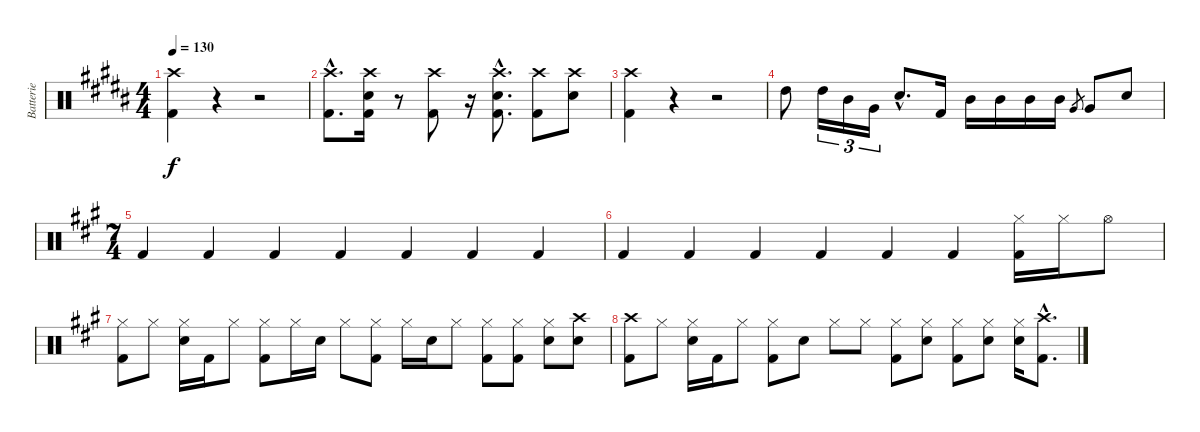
\track ("Batterie" "Batterie") {instrument percussion}
\staff {score}
\articulation defaults
\ts (4 4)
\tempo 130
\clef neutral
\ks b
("Crash high (hit)" "Kick (hit) 2").4{dy f} r.4 r.2 |
("Crash high (hit)"{hac} "Kick (hit) 2"{hac}).8{d} ("Crash high (hit)" "Snare (hit) 2" "Kick (hit) 2").16 r.8 ("Crash high (hit)" "Kick (hit) 2").8 r.16 ("Crash high (hit)"{hac} "Snare (hit) 2"{hac} "Kick (hit) 2"{hac}).8{d} ("Crash high (hit)" "Kick (hit) 2").8 ("Crash high (hit)" "Snare (hit) 2").8 |
("Crash high (hit)" "Kick (hit) 2").4 r.4 r.2 |
"High Tom (hit)".8 "High Tom (hit)".16{tu (3 2)} "Mid Tom (hit)".16{tu (3 2)} "Very Low Tom (hit)".16{tu (3 2)} "Snare (hit) 2"{hac}.8{d} "Kick (hit) 2".16 "Mid Tom (hit)".16 "Mid Tom (hit)".16 "Mid Tom (hit)".16 "Mid Tom (hit)".16 "Very Low Tom (hit)".8{gr} "Very Low Tom (hit)".8 "Snare (hit) 2".8 |
\ts (7 4)
\ks a "Kick (hit) 2".4 "Kick (hit) 2".4 "Kick (hit) 2".4 "Kick (hit) 2".4 "Kick (hit) 2".4 "Kick (hit) 2".4 "Kick (hit) 2".4
|
"Kick (hit) 2".4 "Kick (hit) 2".4 "Kick (hit) 2".4 "Kick (hit) 2".4 "Kick (hit) 2".4 "Kick (hit) 2".4 ("Hi-Hat (closed)" "Kick (hit) 2").16 "Hi-Hat (closed)".16 "Hi-Hat (open)".8 |
("Hi-Hat (closed)" "Kick (hit) 2").8 "Hi-Hat (closed)".8 ("Hi-Hat (closed)" "Snare (hit) 2").16 "Kick (hit) 2".16 "Hi-Hat (closed)".8 ("Hi-Hat (closed)" "Kick (hit) 2").8 "Hi-Hat (closed)".16 "Snare (hit) 2".16 "Hi-Hat (closed)".8 ("Hi-Hat (closed)" "Kick (hit) 2").8 "Hi-Hat (closed)".16 "Snare (hit) 2".16 "Hi-Hat (closed)".8 ("Hi-Hat (closed)" "Kick (hit) 2").8 ("Hi-Hat (closed)" "Kick (hit) 2").8 ("Hi-Hat (closed)" "Snare (hit) 2").8 ("Crash high (hit)" "Snare (hit) 2").8 |
("Crash high (hit)" "Kick (hit) 2").8 "Hi-Hat (closed)".8 ("Hi-Hat (closed)" "Snare (hit) 2").16 "Kick (hit) 2".16 "Hi-Hat (closed)".8 ("Hi-Hat (closed)" "Kick (hit) 2").8 "Snare (hit) 2".8 "Hi-Hat (closed)".8 "Hi-Hat (closed)".8 ("Hi-Hat (closed)" "Kick (hit) 2").8 ("Hi-Hat (closed)" "Snare (hit) 2").8 ("Hi-Hat (closed)" "Kick (hit) 2").8 ("Hi-Hat (closed)" "Snare (hit) 2").8 ("Hi-Hat (closed)" "Snare (hit) 2").16 ("Crash high (hit)"{hac} "Kick (hit) 2"{hac}).8{d}
